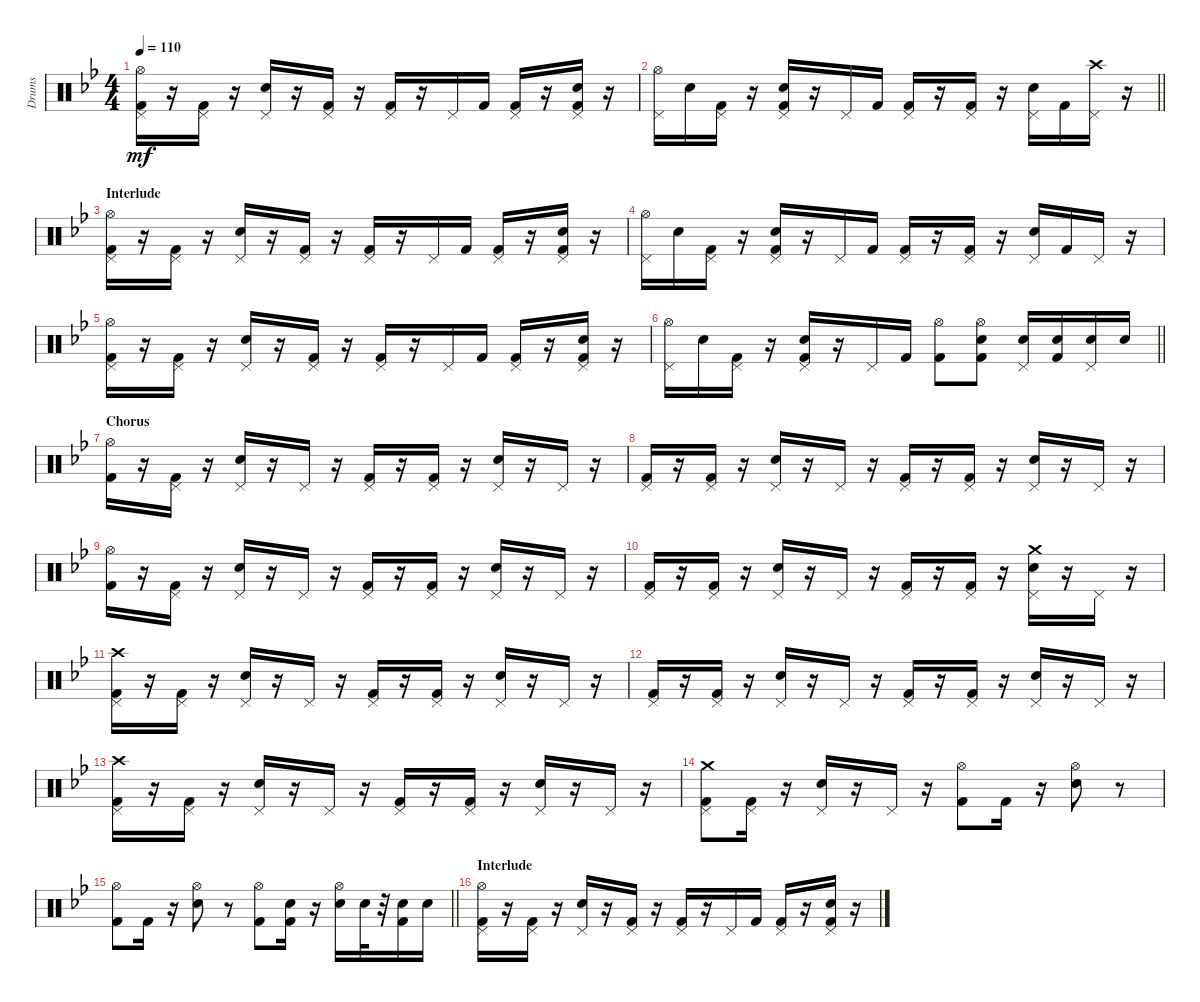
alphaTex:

\track ("Drums" "Drums") {instrument percussion}
\staff {score}
\articulation defaults
\ts (4 4)
\tempo 110
\clef neutral
\ks gminor
("Kick (hit) 2" "Pedal Hi-Hat (hit)" "Hi-Hat (open)").16{dy mf} r.16 ("Kick (hit) 2" "Pedal Hi-Hat (hit)").16 r.16 ("Snare (hit) 2" "Pedal Hi-Hat (hit)").16 r.16 ("Kick (hit) 2" "Pedal Hi-Hat (hit)").16 r.16 ("Kick (hit) 2" "Pedal Hi-Hat (hit)").16 r.16 "Pedal Hi-Hat (hit)".16 "Kick (hit) 2".16 ("Kick (hit) 2" "Pedal Hi-Hat (hit)").16 r.16 ("Kick (hit) 2" "Snare (hit) 2" "Pedal Hi-Hat (hit)").16 r.16 |
\barLineRight lightlight
("Pedal Hi-Hat (hit)" "Hi-Hat (open)").16 "Snare (hit) 2".16 ("Kick (hit) 2" "Pedal Hi-Hat (hit)").16 r.16 ("Kick (hit) 2" "Snare (hit) 2" "Pedal Hi-Hat (hit)").16 r.16 "Pedal Hi-Hat (hit)".16 "Kick (hit) 2".16 ("Kick (hit) 2" "Pedal Hi-Hat (hit)").16 r.16 ("Kick (hit) 2" "Pedal Hi-Hat (hit)").16 r.16 ("Snare (hit) 2" "Pedal Hi-Hat (hit)").16 "Kick (hit) 2".16 ("Pedal Hi-Hat (hit)" "Crash high (hit)").16 r.16 |
\section ("" "Interlude")
("Kick (hit) 2" "Pedal Hi-Hat (hit)" "Hi-Hat (open)").16 r.16 ("Kick (hit) 2" "Pedal Hi-Hat (hit)").16 r.16 ("Snare (hit) 2" "Pedal Hi-Hat (hit)").16 r.16 ("Kick (hit) 2" "Pedal Hi-Hat (hit)").16 r.16 ("Kick (hit) 2" "Pedal Hi-Hat (hit)").16 r.16 "Pedal Hi-Hat (hit)".16 "Kick (hit) 2".16 ("Kick (hit) 2" "Pedal Hi-Hat (hit)").16 r.16 ("Kick (hit) 2" "Snare (hit) 2" "Pedal Hi-Hat (hit)").16 r.16 |
("Pedal Hi-Hat (hit)" "Hi-Hat (open)").16 "Snare (hit) 2".16 ("Kick (hit) 2" "Pedal Hi-Hat (hit)").16 r.16 ("Kick (hit) 2" "Snare (hit) 2" "Pedal Hi-Hat (hit)").16 r.16 "Pedal Hi-Hat (hit)".16 "Kick (hit) 2".16 ("Kick (hit) 2" "Pedal Hi-Hat (hit)").16 r.16 ("Kick (hit) 2" "Pedal Hi-Hat (hit)").16 r.16 ("Snare (hit) 2" "Pedal Hi-Hat (hit)").16 "Kick (hit) 2".16 "Pedal Hi-Hat (hit)".16 r.16 |
("Kick (hit) 2" "Pedal Hi-Hat (hit)" "Hi-Hat (open)").16 r.16 ("Kick (hit) 2" "Pedal Hi-Hat (hit)").16 r.16 ("Snare (hit) 2" "Pedal Hi-Hat (hit)").16 r.16 ("Kick (hit) 2" "Pedal Hi-Hat (hit)").16 r.16 ("Kick (hit) 2" "Pedal Hi-Hat (hit)").16 r.16 "Pedal Hi-Hat (hit)".16 "Kick (hit) 2".16 ("Kick (hit) 2" "Pedal Hi-Hat (hit)").16 r.16 ("Kick (hit) 2" "Snare (hit) 2" "Pedal Hi-Hat (hit)").16 r.16 |
\barLineRight lightlight
("Pedal Hi-Hat (hit)" "Hi-Hat (open)").16 "Snare (hit) 2".16 ("Kick (hit) 2" "Pedal Hi-Hat (hit)").16 r.16 ("Kick (hit) 2" "Snare (hit) 2" "Pedal Hi-Hat (hit)").16 r.16 "Pedal Hi-Hat (hit)".16 "Kick (hit) 2".16 ("Kick (hit) 2" "Hi-Hat (open)").8 ("Kick (hit) 2" "Snare (hit) 2" "Hi-Hat (open)").8 ("Snare (hit) 2" "Pedal Hi-Hat (hit)").16 ("Kick (hit) 2" "Snare (hit) 2").16 ("Snare (hit) 2" "Pedal Hi-Hat (hit)").16 "Snare (hit) 2".16 |
\section ("" "Chorus")
("Kick (hit) 2" "Hi-Hat (open)").16 r.16 ("Kick (hit) 2" "Pedal Hi-Hat (hit)").16 r.16 ("Snare (hit) 2" "Pedal Hi-Hat (hit)").16 r.16 "Pedal Hi-Hat (hit)".16 r.16 ("Kick (hit) 2" "Pedal Hi-Hat (hit)").16 r.16 ("Kick (hit) 2" "Pedal Hi-Hat (hit)").16 r.16 ("Snare (hit) 2" "Pedal Hi-Hat (hit)").16 r.16 "Pedal Hi-Hat (hit)".16 r.16 |
("Kick (hit) 2" "Pedal Hi-Hat (hit)").16 r.16 ("Kick (hit) 2" "Pedal Hi-Hat (hit)").16 r.16 ("Snare (hit) 2" "Pedal Hi-Hat (hit)").16 r.16 "Pedal Hi-Hat (hit)".16 r.16 ("Kick (hit) 2" "Pedal Hi-Hat (hit)").16 r.16 ("Kick (hit) 2" "Pedal Hi-Hat (hit)").16 r.16 ("Snare (hit) 2" "Pedal Hi-Hat (hit)").16 r.16 "Pedal Hi-Hat (hit)".16 r.16 |
("Kick (hit) 2" "Hi-Hat (open)").16 r.16 ("Kick (hit) 2" "Pedal Hi-Hat (hit)").16 r.16 ("Snare (hit) 2" "Pedal Hi-Hat (hit)").16 r.16 "Pedal Hi-Hat (hit)".16 r.16 ("Kick (hit) 2" "Pedal Hi-Hat (hit)").16 r.16 ("Kick (hit) 2" "Pedal Hi-Hat (hit)").16 r.16 ("Snare (hit) 2" "Pedal Hi-Hat (hit)").16 r.16 "Pedal Hi-Hat (hit)".16 r.16 |
("Kick (hit) 2" "Pedal Hi-Hat (hit)").16 r.16 ("Kick (hit) 2" "Pedal Hi-Hat (hit)").16 r.16 ("Snare (hit) 2" "Pedal Hi-Hat (hit)").16 r.16 "Pedal Hi-Hat (hit)".16 r.16 ("Kick (hit) 2" "Pedal Hi-Hat (hit)").16 r.16 ("Kick (hit) 2" "Pedal Hi-Hat (hit)").16 r.16 ("Snare (hit) 2" "Pedal Hi-Hat (hit)" "Crash medium (hit)").16 r.16 "Pedal Hi-Hat (hit)".16 r.16 |
("Kick (hit) 2" "Pedal Hi-Hat (hit)" "Crash high (hit)").16 r.16 ("Kick (hit) 2" "Pedal Hi-Hat (hit)").16 r.16 ("Snare (hit) 2" "Pedal Hi-Hat (hit)").16 r.16 "Pedal Hi-Hat (hit)".16 r.16 ("Kick (hit) 2" "Pedal Hi-Hat (hit)").16 r.16 ("Kick (hit) 2" "Pedal Hi-Hat (hit)").16 r.16 ("Snare (hit) 2" "Pedal Hi-Hat (hit)").16 r.16 "Pedal Hi-Hat (hit)".16 r.16 |
("Kick (hit) 2" "Pedal Hi-Hat (hit)").16 r.16 ("Kick (hit) 2" "Pedal Hi-Hat (hit)").16 r.16 ("Snare (hit) 2" "Pedal Hi-Hat (hit)").16 r.16 "Pedal Hi-Hat (hit)".16 r.16 ("Kick (hit) 2" "Pedal Hi-Hat (hit)").16 r.16 ("Kick (hit) 2" "Pedal Hi-Hat (hit)").16 r.16 ("Snare (hit) 2" "Pedal Hi-Hat (hit)").16 r.16 "Pedal Hi-Hat (hit)".16 r.16 |
("Kick (hit) 2" "Pedal Hi-Hat (hit)" "Crash high (hit)").16 r.16 ("Kick (hit) 2" "Pedal Hi-Hat (hit)").16 r.16 ("Snare (hit) 2" "Pedal Hi-Hat (hit)").16 r.16 "Pedal Hi-Hat (hit)".16 r.16 ("Kick (hit) 2" "Pedal Hi-Hat (hit)").16 r.16 ("Kick (hit) 2" "Pedal Hi-Hat (hit)").16 r.16 ("Snare (hit) 2" "Pedal Hi-Hat (hit)").16 r.16 "Pedal Hi-Hat (hit)".16 r.16 |
("Kick (hit) 2" "Pedal Hi-Hat (hit)" "Crash medium (hit)").8 ("Kick (hit) 2" "Pedal Hi-Hat (hit)").16 r.16 ("Snare (hit) 2" "Pedal Hi-Hat (hit)").16 r.16 "Pedal Hi-Hat (hit)".16 r.16 ("Kick (hit) 2" "Hi-Hat (open)").8 "Kick (hit) 2".16 r.16 ("Snare (hit) 2" "Hi-Hat (open)").8 r.8 |
\barLineRight lightlight
("Hi-Hat (open)" "Kick (hit) 2").8 "Kick (hit) 2".16 r.16 ("Snare (hit) 2" "Hi-Hat (open)").8 r.8 ("Kick (hit) 2" "Hi-Hat (open)").8 ("Kick (hit) 2" "Snare (hit) 2").16 r.16 ("Snare (hit) 2" "Hi-Hat (open)").16 "Snare (hit) 2".32 r.32 ("Kick (hit) 2" "Snare (hit) 2").16 "Snare (hit) 2".16 |
\section ("" "Interlude")
("Kick (hit) 2" "Pedal Hi-Hat (hit)" "Hi-Hat (open)").16 r.16 ("Kick (hit) 2" "Pedal Hi-Hat (hit)").16 r.16 ("Snare (hit) 2" "Pedal Hi-Hat (hit)").16 r.16 ("Kick (hit) 2" "Pedal Hi-Hat (hit)").16 r.16 ("Kick (hit) 2" "Pedal Hi-Hat (hit)").16 r.16 "Pedal Hi-Hat (hit)".16 "Kick (hit) 2".16 ("Kick (hit) 2" "Pedal Hi-Hat (hit)").16 r.16 ("Kick (hit) 2" "Snare (hit) 2" "Pedal Hi-Hat (hit)").16 r.16
